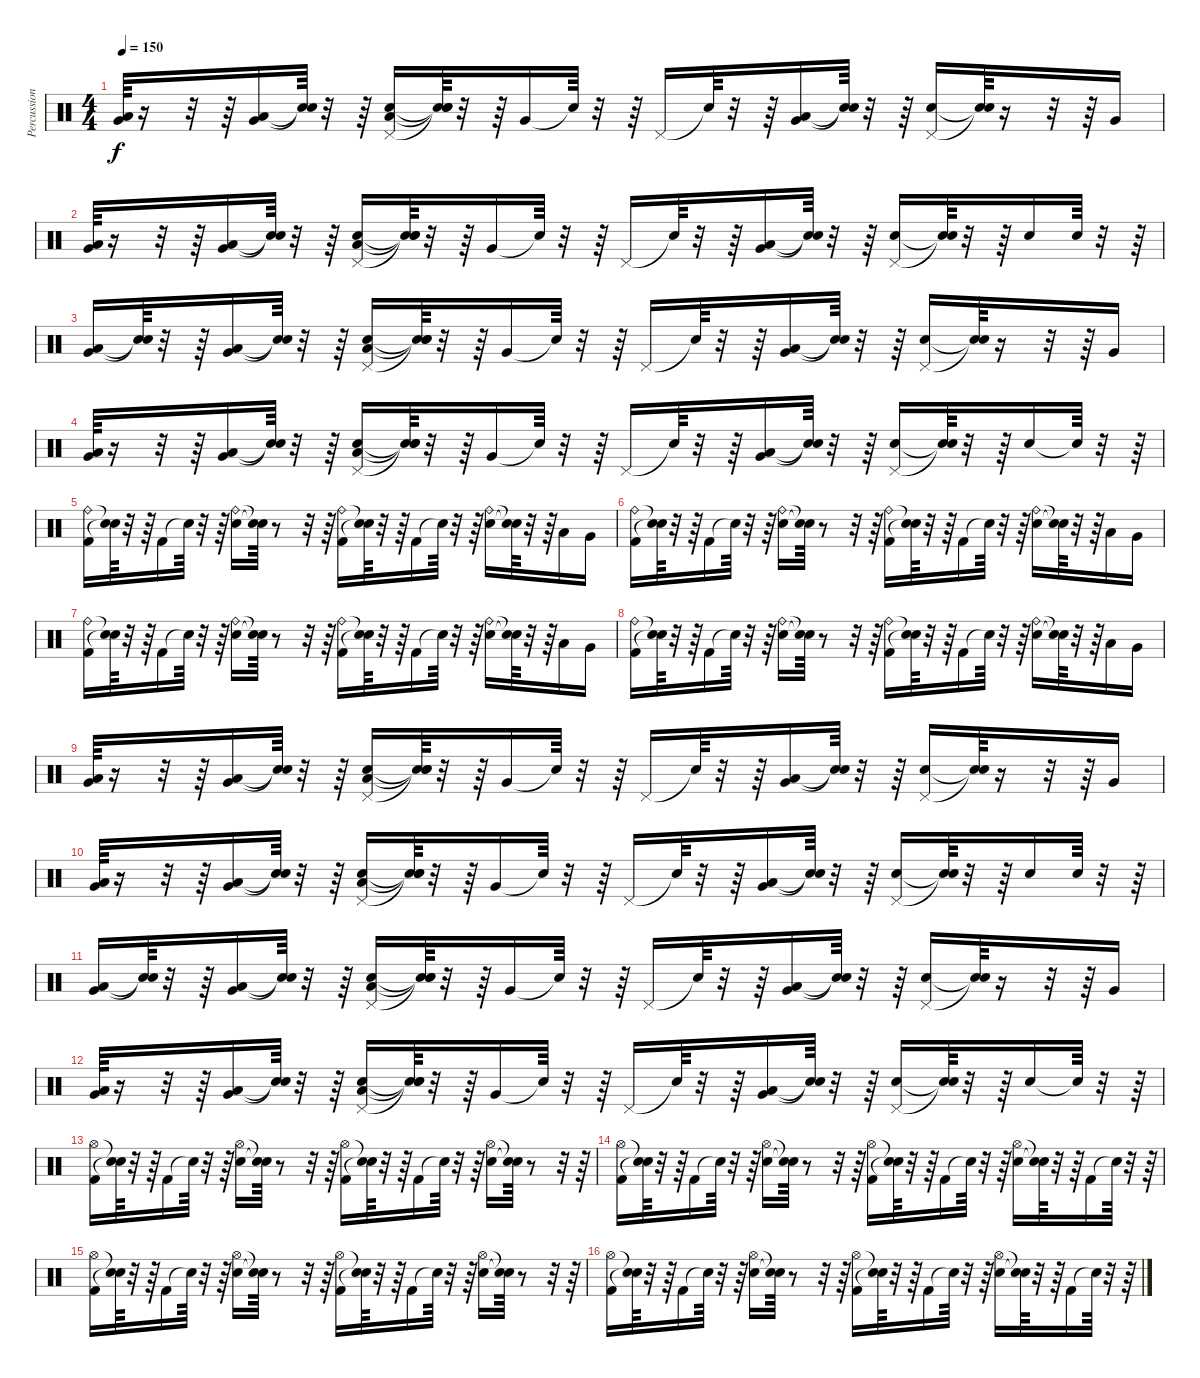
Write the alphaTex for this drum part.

\track ("Percussions" "Percussion") {instrument percussion}
\staff {score}
\articulation defaults
\ts (4 4)
\tempo 150
\clef neutral
\ks c
("Very Low Tom (hit)" "Low Floor Tom (hit)").64{dy f} r.16 r.32 r.64 ("Very Low Tom (hit)" "Low Floor Tom (hit)").16 ("Snare (hit)"{t} "Snare (hit)"{t}).64 r.32 r.64 ("Electric Snare (hit)" "Pedal Hi-Hat (hit)" "Low Floor Tom (hit)").16 ("Snare (hit)"{t} "Snare (hit)"{t} "Snare (hit)"{t}).64 r.32 r.64 "Very Low Tom (hit)".16 "Snare (hit)"{t}.64 r.32 r.64 "Pedal Hi-Hat (hit)".16 "Snare (hit)"{t}.64 r.32 r.64 ("Very Low Tom (hit)" "Low Floor Tom (hit)").16 ("Snare (hit)"{t} "Snare (hit)"{t}).64 r.32 r.64 ("Electric Snare (hit)" "Pedal Hi-Hat (hit)").16 ("Snare (hit)"{t} "Snare (hit)"{t}).64 r.16 r.32 r.64 "Very Low Tom (hit)".16 |
("Very Low Tom (hit)" "Low Floor Tom (hit)").64 r.16 r.32 r.64 ("Very Low Tom (hit)" "Low Floor Tom (hit)").16 ("Snare (hit)"{t} "Snare (hit)"{t}).64 r.32 r.64 ("Electric Snare (hit)" "Pedal Hi-Hat (hit)" "Low Floor Tom (hit)").16 ("Snare (hit)"{t} "Snare (hit)"{t} "Snare (hit)"{t}).64 r.32 r.64 "Very Low Tom (hit)".16 "Snare (hit)"{t}.64 r.32 r.64 "Pedal Hi-Hat (hit)".16 "Snare (hit)"{t}.64 r.32 r.64 ("Very Low Tom (hit)" "Low Floor Tom (hit)").16 ("Snare (hit)"{t} "Snare (hit)"{t}).64 r.32 r.64 ("Electric Snare (hit)" "Pedal Hi-Hat (hit)").16 ("Snare (hit)"{t} "Snare (hit)"{t}).64 r.32 r.64 "Electric Snare (hit)".16 "Electric Snare (hit)".64 r.32 r.64 |
("Very Low Tom (hit)" "Low Floor Tom (hit)").16 ("Snare (hit)"{t} "Snare (hit)"{t}).64 r.32 r.64 ("Very Low Tom (hit)" "Low Floor Tom (hit)").16 ("Snare (hit)"{t} "Snare (hit)"{t}).64 r.32 r.64 ("Electric Snare (hit)" "Pedal Hi-Hat (hit)" "Low Floor Tom (hit)").16 ("Snare (hit)"{t} "Snare (hit)"{t} "Snare (hit)"{t}).64 r.32 r.64 "Very Low Tom (hit)".16 "Snare (hit)"{t}.64 r.32 r.64 "Pedal Hi-Hat (hit)".16 "Snare (hit)"{t}.64 r.32 r.64 ("Very Low Tom (hit)" "Low Floor Tom (hit)").16 ("Snare (hit)"{t} "Snare (hit)"{t}).64 r.32 r.64 ("Electric Snare (hit)" "Pedal Hi-Hat (hit)").16 ("Snare (hit)"{t} "Snare (hit)"{t}).64 r.16 r.32 r.64 "Very Low Tom (hit)".16 |
("Very Low Tom (hit)" "Low Floor Tom (hit)").64 r.16 r.32 r.64 ("Very Low Tom (hit)" "Low Floor Tom (hit)").16 ("Snare (hit)"{t} "Snare (hit)"{t}).64 r.32 r.64 ("Electric Snare (hit)" "Pedal Hi-Hat (hit)" "Low Floor Tom (hit)").16 ("Snare (hit)"{t} "Snare (hit)"{t} "Snare (hit)"{t}).64 r.32 r.64 "Very Low Tom (hit)".16 "Snare (hit)"{t}.64 r.32 r.64 "Pedal Hi-Hat (hit)".16 "Snare (hit)"{t}.64 r.32 r.64 ("Very Low Tom (hit)" "Low Floor Tom (hit)").16 ("Snare (hit)"{t} "Snare (hit)"{t}).64 r.32 r.64 ("Electric Snare (hit)" "Pedal Hi-Hat (hit)").16 ("Snare (hit)"{t} "Snare (hit)"{t}).64 r.32 r.64 "Electric Snare (hit)".16 "Snare (hit)"{t}.64 r.32 r.64 |
("Ride (bell)" "Kick (hit) 2").16 ("Snare (hit)"{t} "Snare (hit)"{t}).64 r.32 r.64 "Kick (hit) 2".16 "Snare (hit)"{t}.64 r.32 r.64 ("Ride (bell)" "Electric Snare (hit)").16 ("Snare (hit)"{t} "Snare (hit)"{t}).64 r.8 r.32 r.64 ("Ride (bell)" "Kick (hit) 2").16 ("Snare (hit)"{t} "Snare (hit)"{t}).64 r.32 r.64 "Kick (hit) 2".16 "Snare (hit)"{t}.64 r.32 r.64 ("Ride (bell)" "Electric Snare (hit)").16 ("Snare (hit)"{t} "Snare (hit)"{t}).64 r.32 r.64 "Low Tom (hit)".16 "Very Low Tom (hit)".16 |
("Ride (bell)" "Kick (hit) 2").16 ("Snare (hit)"{t} "Snare (hit)"{t}).64 r.32 r.64 "Kick (hit) 2".16 "Snare (hit)"{t}.64 r.32 r.64 ("Ride (bell)" "Electric Snare (hit)").16 ("Snare (hit)"{t} "Snare (hit)"{t}).64 r.8 r.32 r.64 ("Ride (bell)" "Kick (hit) 2").16 ("Snare (hit)"{t} "Snare (hit)"{t}).64 r.32 r.64 "Kick (hit) 2".16 "Snare (hit)"{t}.64 r.32 r.64 ("Ride (bell)" "Electric Snare (hit)").16 ("Snare (hit)"{t} "Snare (hit)"{t}).64 r.32 r.64 "Low Tom (hit)".16 "Very Low Tom (hit)".16 |
("Ride (bell)" "Kick (hit) 2").16 ("Snare (hit)"{t} "Snare (hit)"{t}).64 r.32 r.64 "Kick (hit) 2".16 "Snare (hit)"{t}.64 r.32 r.64 ("Ride (bell)" "Electric Snare (hit)").16 ("Snare (hit)"{t} "Snare (hit)"{t}).64 r.8 r.32 r.64 ("Ride (bell)" "Kick (hit) 2").16 ("Snare (hit)"{t} "Snare (hit)"{t}).64 r.32 r.64 "Kick (hit) 2".16 "Snare (hit)"{t}.64 r.32 r.64 ("Ride (bell)" "Electric Snare (hit)").16 ("Snare (hit)"{t} "Snare (hit)"{t}).64 r.32 r.64 "Low Tom (hit)".16 "Very Low Tom (hit)".16 |
("Ride (bell)" "Kick (hit) 2").16 ("Snare (hit)"{t} "Snare (hit)"{t}).64 r.32 r.64 "Kick (hit) 2".16 "Snare (hit)"{t}.64 r.32 r.64 ("Ride (bell)" "Electric Snare (hit)").16 ("Snare (hit)"{t} "Snare (hit)"{t}).64 r.8 r.32 r.64 ("Ride (bell)" "Kick (hit) 2").16 ("Snare (hit)"{t} "Snare (hit)"{t}).64 r.32 r.64 "Kick (hit) 2".16 "Snare (hit)"{t}.64 r.32 r.64 ("Ride (bell)" "Electric Snare (hit)").16 ("Snare (hit)"{t} "Snare (hit)"{t}).64 r.32 r.64 "Low Tom (hit)".16 "Very Low Tom (hit)".16 |
("Very Low Tom (hit)" "Low Floor Tom (hit)").64 r.16 r.32 r.64 ("Very Low Tom (hit)" "Low Floor Tom (hit)").16 ("Snare (hit)"{t} "Snare (hit)"{t}).64 r.32 r.64 ("Electric Snare (hit)" "Pedal Hi-Hat (hit)" "Low Floor Tom (hit)").16 ("Snare (hit)"{t} "Snare (hit)"{t} "Snare (hit)"{t}).64 r.32 r.64 "Very Low Tom (hit)".16 "Snare (hit)"{t}.64 r.32 r.64 "Pedal Hi-Hat (hit)".16 "Snare (hit)"{t}.64 r.32 r.64 ("Very Low Tom (hit)" "Low Floor Tom (hit)").16 ("Snare (hit)"{t} "Snare (hit)"{t}).64 r.32 r.64 ("Electric Snare (hit)" "Pedal Hi-Hat (hit)").16 ("Snare (hit)"{t} "Snare (hit)"{t}).64 r.16 r.32 r.64 "Very Low Tom (hit)".16 |
("Very Low Tom (hit)" "Low Floor Tom (hit)").64 r.16 r.32 r.64 ("Very Low Tom (hit)" "Low Floor Tom (hit)").16 ("Snare (hit)"{t} "Snare (hit)"{t}).64 r.32 r.64 ("Electric Snare (hit)" "Pedal Hi-Hat (hit)" "Low Floor Tom (hit)").16 ("Snare (hit)"{t} "Snare (hit)"{t} "Snare (hit)"{t}).64 r.32 r.64 "Very Low Tom (hit)".16 "Snare (hit)"{t}.64 r.32 r.64 "Pedal Hi-Hat (hit)".16 "Snare (hit)"{t}.64 r.32 r.64 ("Very Low Tom (hit)" "Low Floor Tom (hit)").16 ("Snare (hit)"{t} "Snare (hit)"{t}).64 r.32 r.64 ("Electric Snare (hit)" "Pedal Hi-Hat (hit)").16 ("Snare (hit)"{t} "Snare (hit)"{t}).64 r.32 r.64 "Electric Snare (hit)".16 "Electric Snare (hit)".64 r.32 r.64 |
("Very Low Tom (hit)" "Low Floor Tom (hit)").16 ("Snare (hit)"{t} "Snare (hit)"{t}).64 r.32 r.64 ("Very Low Tom (hit)" "Low Floor Tom (hit)").16 ("Snare (hit)"{t} "Snare (hit)"{t}).64 r.32 r.64 ("Electric Snare (hit)" "Pedal Hi-Hat (hit)" "Low Floor Tom (hit)").16 ("Snare (hit)"{t} "Snare (hit)"{t} "Snare (hit)"{t}).64 r.32 r.64 "Very Low Tom (hit)".16 "Snare (hit)"{t}.64 r.32 r.64 "Pedal Hi-Hat (hit)".16 "Snare (hit)"{t}.64 r.32 r.64 ("Very Low Tom (hit)" "Low Floor Tom (hit)").16 ("Snare (hit)"{t} "Snare (hit)"{t}).64 r.32 r.64 ("Electric Snare (hit)" "Pedal Hi-Hat (hit)").16 ("Snare (hit)"{t} "Snare (hit)"{t}).64 r.16 r.32 r.64 "Very Low Tom (hit)".16 |
("Very Low Tom (hit)" "Low Floor Tom (hit)").64 r.16 r.32 r.64 ("Very Low Tom (hit)" "Low Floor Tom (hit)").16 ("Snare (hit)"{t} "Snare (hit)"{t}).64 r.32 r.64 ("Electric Snare (hit)" "Pedal Hi-Hat (hit)" "Low Floor Tom (hit)").16 ("Snare (hit)"{t} "Snare (hit)"{t} "Snare (hit)"{t}).64 r.32 r.64 "Very Low Tom (hit)".16 "Snare (hit)"{t}.64 r.32 r.64 "Pedal Hi-Hat (hit)".16 "Snare (hit)"{t}.64 r.32 r.64 ("Very Low Tom (hit)" "Low Floor Tom (hit)").16 ("Snare (hit)"{t} "Snare (hit)"{t}).64 r.32 r.64 ("Electric Snare (hit)" "Pedal Hi-Hat (hit)").16 ("Snare (hit)"{t} "Snare (hit)"{t}).64 r.32 r.64 "Electric Snare (hit)".16 "Snare (hit)"{t}.64 r.32 r.64 |
("Hi-Hat (open)" "Kick (hit) 2").16 ("Snare (hit)"{t} "Snare (hit)"{t}).64 r.32 r.64 "Kick (hit) 2".16 "Snare (hit)"{t}.64 r.32 r.64 ("Hi-Hat (open)" "Electric Snare (hit)").16 ("Snare (hit)"{t} "Snare (hit)"{t}).64 r.8 r.32 r.64 ("Hi-Hat (open)" "Kick (hit) 2").16 ("Snare (hit)"{t} "Snare (hit)"{t}).64 r.32 r.64 "Kick (hit) 2".16 "Snare (hit)"{t}.64 r.32 r.64 ("Hi-Hat (open)" "Electric Snare (hit)").16 ("Snare (hit)"{t} "Snare (hit)"{t}).64 r.8 r.32 r.64 |
("Hi-Hat (open)" "Kick (hit) 2").16 ("Snare (hit)"{t} "Snare (hit)"{t}).64 r.32 r.64 "Kick (hit) 2".16 "Snare (hit)"{t}.64 r.32 r.64 ("Hi-Hat (open)" "Electric Snare (hit)").16 ("Snare (hit)"{t} "Snare (hit)"{t}).64 r.8 r.32 r.64 ("Hi-Hat (open)" "Kick (hit) 2").16 ("Snare (hit)"{t} "Snare (hit)"{t}).64 r.32 r.64 "Kick (hit) 2".16 "Snare (hit)"{t}.64 r.32 r.64 ("Hi-Hat (open)" "Electric Snare (hit)").16 ("Snare (hit)"{t} "Snare (hit)"{t}).64 r.32 r.64 "Kick (hit) 2".16 "Snare (hit)"{t}.64 r.32 r.64 |
("Hi-Hat (open)" "Kick (hit) 2").16 ("Snare (hit)"{t} "Snare (hit)"{t}).64 r.32 r.64 "Kick (hit) 2".16 "Snare (hit)"{t}.64 r.32 r.64 ("Hi-Hat (open)" "Electric Snare (hit)").16 ("Snare (hit)"{t} "Snare (hit)"{t}).64 r.8 r.32 r.64 ("Hi-Hat (open)" "Kick (hit) 2").16 ("Snare (hit)"{t} "Snare (hit)"{t}).64 r.32 r.64 "Kick (hit) 2".16 "Snare (hit)"{t}.64 r.32 r.64 ("Hi-Hat (open)" "Electric Snare (hit)").16 ("Snare (hit)"{t} "Snare (hit)"{t}).64 r.8 r.32 r.64 |
("Hi-Hat (open)" "Kick (hit) 2").16 ("Snare (hit)"{t} "Snare (hit)"{t}).64 r.32 r.64 "Kick (hit) 2".16 "Snare (hit)"{t}.64 r.32 r.64 ("Hi-Hat (open)" "Electric Snare (hit)").16 ("Snare (hit)"{t} "Snare (hit)"{t}).64 r.8 r.32 r.64 ("Hi-Hat (open)" "Kick (hit) 2").16 ("Snare (hit)"{t} "Snare (hit)"{t}).64 r.32 r.64 "Kick (hit) 2".16 "Snare (hit)"{t}.64 r.32 r.64 ("Hi-Hat (open)" "Electric Snare (hit)").16 ("Snare (hit)"{t} "Snare (hit)"{t}).64 r.32 r.64 "Kick (hit) 2".16 "Snare (hit)"{t}.64 r.32 r.64
